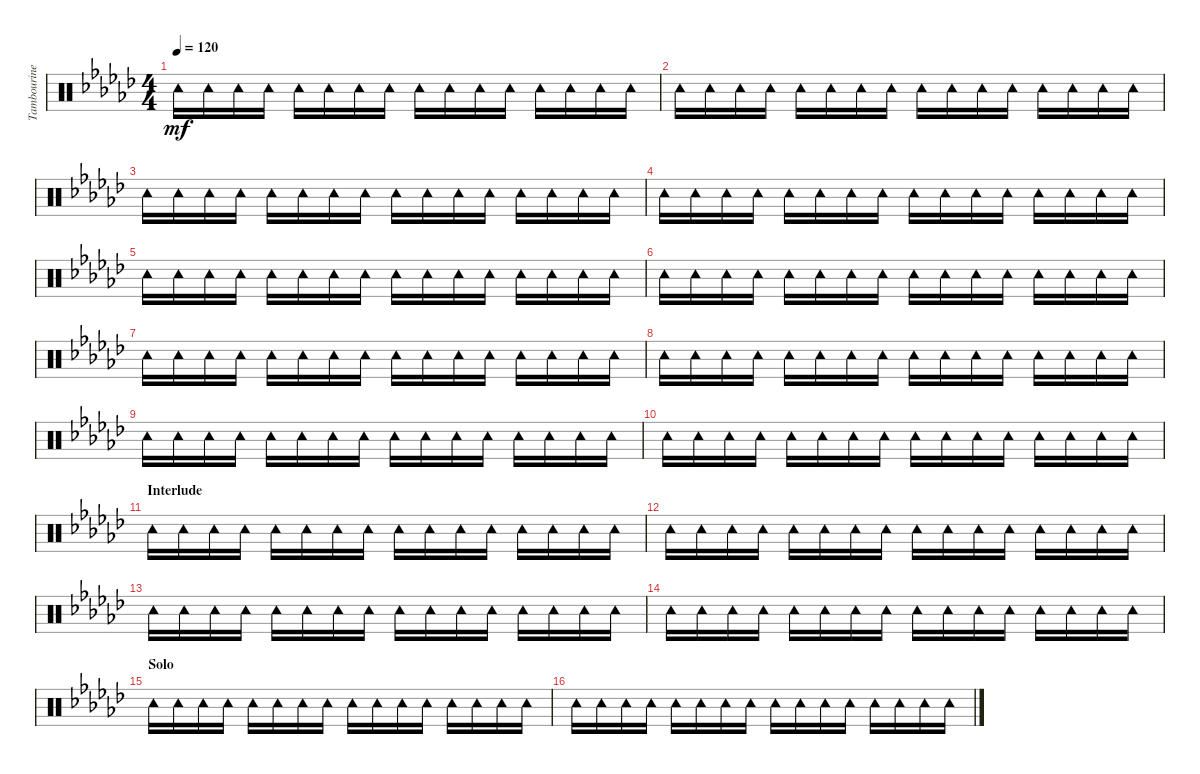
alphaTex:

\track ("Tambourine" "Tambourine") {instrument percussion}
\staff {score}
\articulation defaults
\ts (4 4)
\tempo 120
\clef neutral
\ks ebminor "Tambourine (hit)".16{dy mf} "Tambourine (hit)".16 "Tambourine (hit)".16 "Tambourine (hit)".16 "Tambourine (hit)".16 "Tambourine (hit)".16 "Tambourine (hit)".16 "Tambourine (hit)".16 "Tambourine (hit)".16 "Tambourine (hit)".16 "Tambourine (hit)".16 "Tambourine (hit)".16 "Tambourine (hit)".16 "Tambourine (hit)".16 "Tambourine (hit)".16 "Tambourine (hit)".16
|
"Tambourine (hit)".16 "Tambourine (hit)".16 "Tambourine (hit)".16 "Tambourine (hit)".16 "Tambourine (hit)".16 "Tambourine (hit)".16 "Tambourine (hit)".16 "Tambourine (hit)".16 "Tambourine (hit)".16 "Tambourine (hit)".16 "Tambourine (hit)".16 "Tambourine (hit)".16 "Tambourine (hit)".16 "Tambourine (hit)".16 "Tambourine (hit)".16 "Tambourine (hit)".16 |
"Tambourine (hit)".16 "Tambourine (hit)".16 "Tambourine (hit)".16 "Tambourine (hit)".16 "Tambourine (hit)".16 "Tambourine (hit)".16 "Tambourine (hit)".16 "Tambourine (hit)".16 "Tambourine (hit)".16 "Tambourine (hit)".16 "Tambourine (hit)".16 "Tambourine (hit)".16 "Tambourine (hit)".16 "Tambourine (hit)".16 "Tambourine (hit)".16 "Tambourine (hit)".16 |
"Tambourine (hit)".16 "Tambourine (hit)".16 "Tambourine (hit)".16 "Tambourine (hit)".16 "Tambourine (hit)".16 "Tambourine (hit)".16 "Tambourine (hit)".16 "Tambourine (hit)".16 "Tambourine (hit)".16 "Tambourine (hit)".16 "Tambourine (hit)".16 "Tambourine (hit)".16 "Tambourine (hit)".16 "Tambourine (hit)".16 "Tambourine (hit)".16 "Tambourine (hit)".16 |
"Tambourine (hit)".16 "Tambourine (hit)".16 "Tambourine (hit)".16 "Tambourine (hit)".16 "Tambourine (hit)".16 "Tambourine (hit)".16 "Tambourine (hit)".16 "Tambourine (hit)".16 "Tambourine (hit)".16 "Tambourine (hit)".16 "Tambourine (hit)".16 "Tambourine (hit)".16 "Tambourine (hit)".16 "Tambourine (hit)".16 "Tambourine (hit)".16 "Tambourine (hit)".16 |
"Tambourine (hit)".16 "Tambourine (hit)".16 "Tambourine (hit)".16 "Tambourine (hit)".16 "Tambourine (hit)".16 "Tambourine (hit)".16 "Tambourine (hit)".16 "Tambourine (hit)".16 "Tambourine (hit)".16 "Tambourine (hit)".16 "Tambourine (hit)".16 "Tambourine (hit)".16 "Tambourine (hit)".16 "Tambourine (hit)".16 "Tambourine (hit)".16 "Tambourine (hit)".16 |
"Tambourine (hit)".16 "Tambourine (hit)".16 "Tambourine (hit)".16 "Tambourine (hit)".16 "Tambourine (hit)".16 "Tambourine (hit)".16 "Tambourine (hit)".16 "Tambourine (hit)".16 "Tambourine (hit)".16 "Tambourine (hit)".16 "Tambourine (hit)".16 "Tambourine (hit)".16 "Tambourine (hit)".16 "Tambourine (hit)".16 "Tambourine (hit)".16 "Tambourine (hit)".16 |
"Tambourine (hit)".16 "Tambourine (hit)".16 "Tambourine (hit)".16 "Tambourine (hit)".16 "Tambourine (hit)".16 "Tambourine (hit)".16 "Tambourine (hit)".16 "Tambourine (hit)".16 "Tambourine (hit)".16 "Tambourine (hit)".16 "Tambourine (hit)".16 "Tambourine (hit)".16 "Tambourine (hit)".16 "Tambourine (hit)".16 "Tambourine (hit)".16 "Tambourine (hit)".16 |
"Tambourine (hit)".16 "Tambourine (hit)".16 "Tambourine (hit)".16 "Tambourine (hit)".16 "Tambourine (hit)".16 "Tambourine (hit)".16 "Tambourine (hit)".16 "Tambourine (hit)".16 "Tambourine (hit)".16 "Tambourine (hit)".16 "Tambourine (hit)".16 "Tambourine (hit)".16 "Tambourine (hit)".16 "Tambourine (hit)".16 "Tambourine (hit)".16 "Tambourine (hit)".16 |
"Tambourine (hit)".16 "Tambourine (hit)".16 "Tambourine (hit)".16 "Tambourine (hit)".16 "Tambourine (hit)".16 "Tambourine (hit)".16 "Tambourine (hit)".16 "Tambourine (hit)".16 "Tambourine (hit)".16 "Tambourine (hit)".16 "Tambourine (hit)".16 "Tambourine (hit)".16 "Tambourine (hit)".16 "Tambourine (hit)".16 "Tambourine (hit)".16 "Tambourine (hit)".16 |
\section ("" "Interlude")
"Tambourine (hit)".16 "Tambourine (hit)".16 "Tambourine (hit)".16 "Tambourine (hit)".16 "Tambourine (hit)".16 "Tambourine (hit)".16 "Tambourine (hit)".16 "Tambourine (hit)".16 "Tambourine (hit)".16 "Tambourine (hit)".16 "Tambourine (hit)".16 "Tambourine (hit)".16 "Tambourine (hit)".16 "Tambourine (hit)".16 "Tambourine (hit)".16 "Tambourine (hit)".16 |
"Tambourine (hit)".16 "Tambourine (hit)".16 "Tambourine (hit)".16 "Tambourine (hit)".16 "Tambourine (hit)".16 "Tambourine (hit)".16 "Tambourine (hit)".16 "Tambourine (hit)".16 "Tambourine (hit)".16 "Tambourine (hit)".16 "Tambourine (hit)".16 "Tambourine (hit)".16 "Tambourine (hit)".16 "Tambourine (hit)".16 "Tambourine (hit)".16 "Tambourine (hit)".16 |
"Tambourine (hit)".16 "Tambourine (hit)".16 "Tambourine (hit)".16 "Tambourine (hit)".16 "Tambourine (hit)".16 "Tambourine (hit)".16 "Tambourine (hit)".16 "Tambourine (hit)".16 "Tambourine (hit)".16 "Tambourine (hit)".16 "Tambourine (hit)".16 "Tambourine (hit)".16 "Tambourine (hit)".16 "Tambourine (hit)".16 "Tambourine (hit)".16 "Tambourine (hit)".16 |
"Tambourine (hit)".16 "Tambourine (hit)".16 "Tambourine (hit)".16 "Tambourine (hit)".16 "Tambourine (hit)".16 "Tambourine (hit)".16 "Tambourine (hit)".16 "Tambourine (hit)".16 "Tambourine (hit)".16 "Tambourine (hit)".16 "Tambourine (hit)".16 "Tambourine (hit)".16 "Tambourine (hit)".16 "Tambourine (hit)".16 "Tambourine (hit)".16 "Tambourine (hit)".16 |
\section ("" "Solo")
"Tambourine (hit)".16 "Tambourine (hit)".16 "Tambourine (hit)".16 "Tambourine (hit)".16 "Tambourine (hit)".16 "Tambourine (hit)".16 "Tambourine (hit)".16 "Tambourine (hit)".16 "Tambourine (hit)".16 "Tambourine (hit)".16 "Tambourine (hit)".16 "Tambourine (hit)".16 "Tambourine (hit)".16 "Tambourine (hit)".16 "Tambourine (hit)".16 "Tambourine (hit)".16 |
"Tambourine (hit)".16 "Tambourine (hit)".16 "Tambourine (hit)".16 "Tambourine (hit)".16 "Tambourine (hit)".16 "Tambourine (hit)".16 "Tambourine (hit)".16 "Tambourine (hit)".16 "Tambourine (hit)".16 "Tambourine (hit)".16 "Tambourine (hit)".16 "Tambourine (hit)".16 "Tambourine (hit)".16 "Tambourine (hit)".16 "Tambourine (hit)".16 "Tambourine (hit)".16
